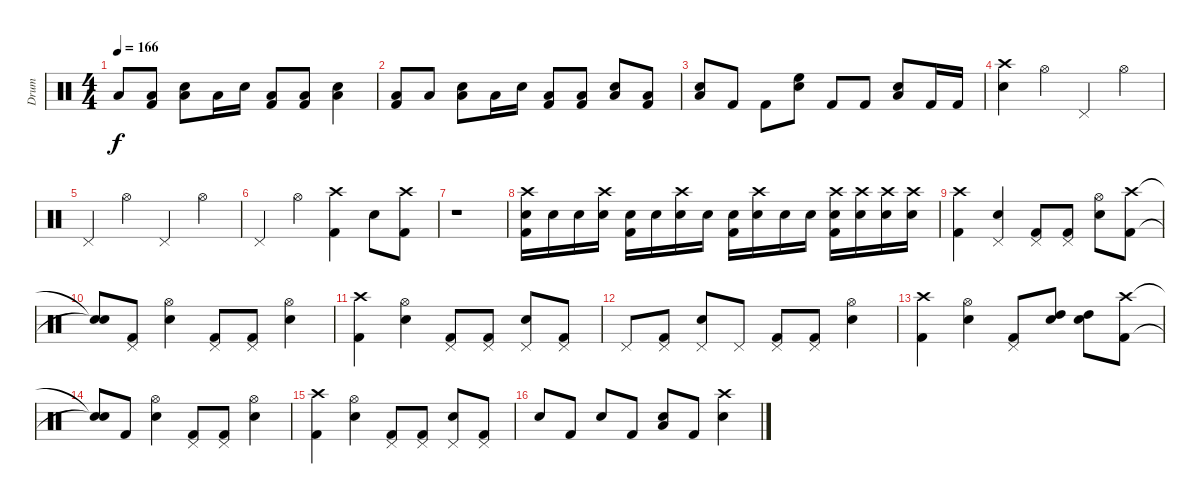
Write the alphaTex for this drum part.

\track ("Drum" "Drum") {instrument percussion}
\staff {score}
\articulation defaults
\ts (4 4)
\tempo 166
\clef neutral
\ks c "Low Tom (hit)".8{dy f}
("Low Tom (hit)" "Kick (hit) 2").8 ("Low Tom (hit)" "Electric Snare (hit)").8 "Low Tom (hit)".16 "Electric Snare (hit)".16 ("Low Tom (hit)" "Kick (hit) 2").8 ("Low Tom (hit)" "Kick (hit) 2").8 ("Low Tom (hit)" "Electric Snare (hit)").4 |
("Low Tom (hit)" "Kick (hit) 2").8 "Low Tom (hit)".8 ("Low Tom (hit)" "Electric Snare (hit)").8 "Low Tom (hit)".16 "Electric Snare (hit)".16 ("Low Tom (hit)" "Kick (hit) 2").8 ("Low Tom (hit)" "Kick (hit) 2").8 ("Low Tom (hit)" "Electric Snare (hit)").8 ("Low Tom (hit)" "Kick (hit) 2").8 |
("Low Tom (hit)" "Electric Snare (hit)").8 "Kick (hit) 2".8 "Kick (hit) 2".8 ("High Floor Tom (hit)" "Electric Snare (hit)").8 "Kick (hit) 2".8 "Kick (hit) 2".8 ("Low Tom (hit)" "Electric Snare (hit)").8 "Kick (hit) 2".16 "Kick (hit) 2".16 |
("Crash high (hit)" "Electric Snare (hit)").4 "Hi-Hat (open)".4 "Pedal Hi-Hat (hit)".4 "Hi-Hat (open)".4 |
"Pedal Hi-Hat (hit)".4 "Hi-Hat (open)".4 "Pedal Hi-Hat (hit)".4 "Hi-Hat (open)".4 |
"Pedal Hi-Hat (hit)".4 "Hi-Hat (open)".4 ("Crash high (hit)" "Kick (hit) 2").4 "Electric Snare (hit)".8 ("Crash high (hit)" "Kick (hit) 2").8 |
r.1 |
("Crash high (hit)" "Electric Snare (hit)" "Kick (hit) 2").16 "Electric Snare (hit)".16 "Electric Snare (hit)".16 ("Crash high (hit)" "Electric Snare (hit)").16 ("Electric Snare (hit)" "Kick (hit) 2").16 "Electric Snare (hit)".16 ("Crash high (hit)" "Electric Snare (hit)").16 "Electric Snare (hit)".16 ("Electric Snare (hit)" "Kick (hit) 2").16 ("Crash high (hit)" "Electric Snare (hit)").16 "Electric Snare (hit)".16 "Electric Snare (hit)".16 ("Crash high (hit)" "Electric Snare (hit)" "Kick (hit) 2").16 ("Crash high (hit)" "Electric Snare (hit)").16 ("Crash high (hit)" "Electric Snare (hit)").16 ("Crash high (hit)" "Electric Snare (hit)").16 |
("Crash high (hit)" "Kick (hit) 2").4 ("Pedal Hi-Hat (hit)" "Electric Snare (hit)").4 ("Pedal Hi-Hat (hit)" "Kick (hit) 2").8 ("Pedal Hi-Hat (hit)" "Kick (hit) 2").8 ("Hi-Hat (open)" "Electric Snare (hit)").8 ("Crash high (hit)" "Kick (hit) 2").8 |
("Snare (hit)"{t} "Snare (hit)"{t}).8 ("Pedal Hi-Hat (hit)" "Kick (hit) 2").8 ("Hi-Hat (open)" "Electric Snare (hit)").4 ("Pedal Hi-Hat (hit)" "Kick (hit) 2").8 ("Pedal Hi-Hat (hit)" "Kick (hit) 2").8 ("Hi-Hat (open)" "Electric Snare (hit)").4 |
("Crash high (hit)" "Kick (hit) 2").4 ("Hi-Hat (open)" "Electric Snare (hit)").4 ("Pedal Hi-Hat (hit)" "Kick (hit) 2").8 ("Pedal Hi-Hat (hit)" "Kick (hit) 2").8 ("Pedal Hi-Hat (hit)" "Electric Snare (hit)").8 ("Pedal Hi-Hat (hit)" "Kick (hit) 2").8 |
"Pedal Hi-Hat (hit)".8 ("Pedal Hi-Hat (hit)" "Kick (hit) 2").8 ("Pedal Hi-Hat (hit)" "Electric Snare (hit)").8 "Pedal Hi-Hat (hit)".8 ("Pedal Hi-Hat (hit)" "Kick (hit) 2").8 ("Pedal Hi-Hat (hit)" "Kick (hit) 2").8 ("Hi-Hat (open)" "Electric Snare (hit)").4 |
("Crash high (hit)" "Kick (hit) 2").4 ("Hi-Hat (open)" "Electric Snare (hit)").4 ("Pedal Hi-Hat (hit)" "Kick (hit) 2").8 ("High Tom (hit)" "Electric Snare (hit)").8 ("High Tom (hit)" "Electric Snare (hit)").8 ("Crash high (hit)" "Kick (hit) 2").8 |
("Snare (hit)"{t} "Snare (hit)"{t}).8 "Kick (hit) 2".8 ("Hi-Hat (open)" "Electric Snare (hit)").4 ("Pedal Hi-Hat (hit)" "Kick (hit) 2").8 ("Pedal Hi-Hat (hit)" "Kick (hit) 2").8 ("Hi-Hat (open)" "Electric Snare (hit)").4 |
("Crash high (hit)" "Kick (hit) 2").4 ("Hi-Hat (open)" "Electric Snare (hit)").4 ("Pedal Hi-Hat (hit)" "Kick (hit) 2").8 ("Pedal Hi-Hat (hit)" "Kick (hit) 2").8 ("Pedal Hi-Hat (hit)" "Electric Snare (hit)").8 ("Pedal Hi-Hat (hit)" "Kick (hit) 2").8 |
"Electric Snare (hit)".8 "Kick (hit) 2".8 "Electric Snare (hit)".8 "Kick (hit) 2".8 ("Low Tom (hit)" "Electric Snare (hit)").8 "Kick (hit) 2".8 ("Crash high (hit)" "Electric Snare (hit)").4
